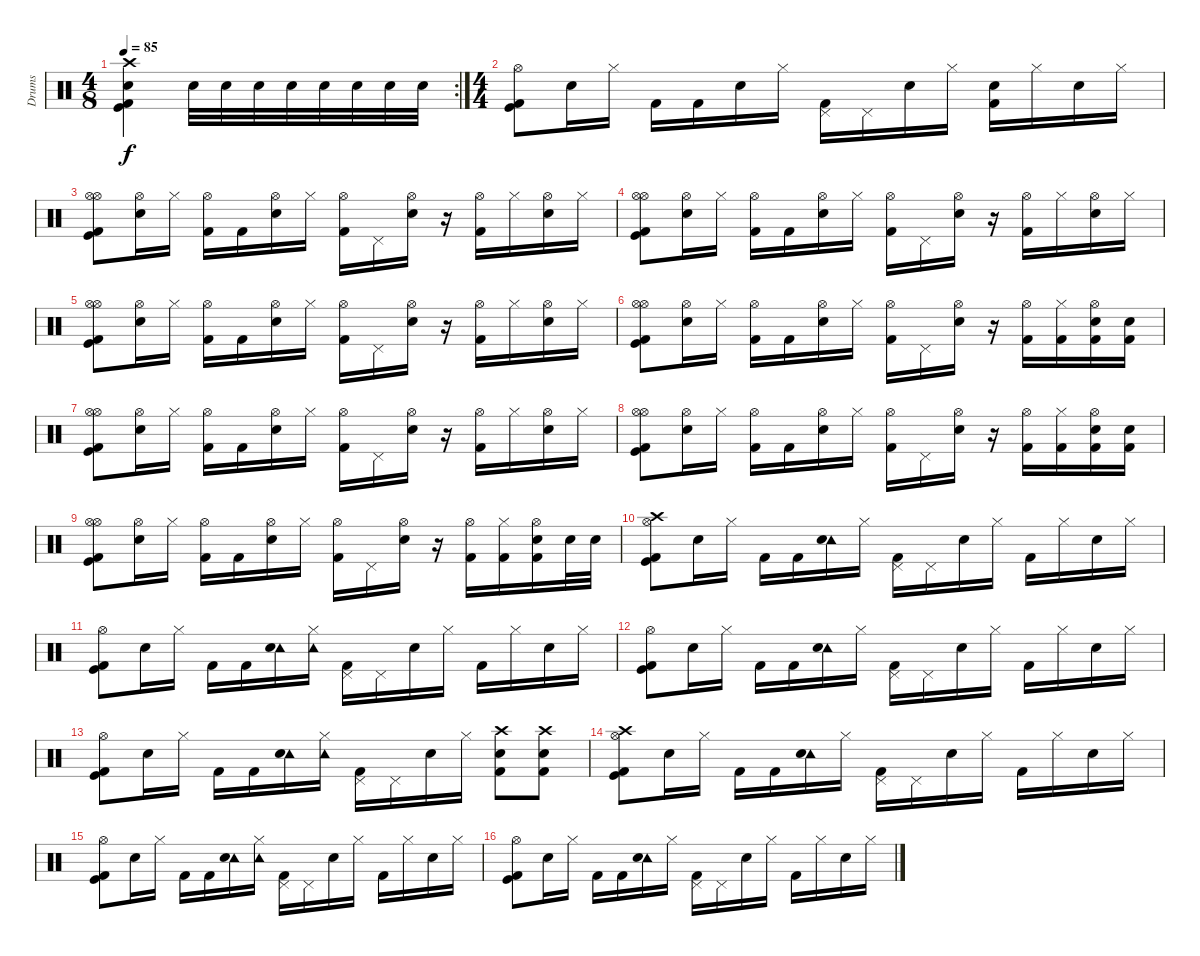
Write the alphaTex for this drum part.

\track ("Drums" "Drums") {instrument percussion}
\staff {score}
\articulation defaults
\rc 2
\ts (4 8)
\tempo 85
\clef neutral
\ks c
("Crash high (hit)" "Kick (hit) 2" "Snare (hit) 2" "Kick (hit)").4{dy f} "Snare (hit) 2".32 "Snare (hit) 2".32 "Snare (hit) 2".32 "Snare (hit) 2".32 "Snare (hit) 2".32 "Snare (hit) 2".32 "Snare (hit) 2".32 "Snare (hit) 2".32 |
\ts (4 4)
("Hi-Hat (open)" "Kick (hit) 2" "Kick (hit)").8 "Snare (hit) 2".16 "Hi-Hat (closed)".16 "Kick (hit) 2".16 "Kick (hit) 2".16 "Snare (hit) 2".16 "Hi-Hat (closed)".16 ("Pedal Hi-Hat (hit)" "Kick (hit) 2").16 "Pedal Hi-Hat (hit)".16 "Snare (hit) 2".16 "Hi-Hat (closed)".16 ("Snare (hit) 2" "Kick (hit) 2").16 "Hi-Hat (closed)".16 "Snare (hit) 2".16 "Hi-Hat (closed)".16 |
("Hi-Hat (open)" "Hi-Hat (open)" "Kick (hit) 2" "Kick (hit)").8 ("Hi-Hat (open)" "Snare (hit) 2").16 "Hi-Hat (closed)".16 ("Hi-Hat (open)" "Kick (hit) 2").16 "Kick (hit) 2".16 ("Hi-Hat (open)" "Snare (hit) 2").16 "Hi-Hat (closed)".16 ("Hi-Hat (open)" "Kick (hit) 2").16 "Pedal Hi-Hat (hit)".16 ("Hi-Hat (open)" "Snare (hit) 2").16 r.16 ("Hi-Hat (open)" "Kick (hit) 2").16 "Hi-Hat (closed)".16 ("Hi-Hat (open)" "Snare (hit) 2").16 "Hi-Hat (closed)".16 |
("Hi-Hat (open)" "Hi-Hat (open)" "Kick (hit) 2" "Kick (hit)").8 ("Hi-Hat (open)" "Snare (hit) 2").16 "Hi-Hat (closed)".16 ("Hi-Hat (open)" "Kick (hit) 2").16 "Kick (hit) 2".16 ("Hi-Hat (open)" "Snare (hit) 2").16 "Hi-Hat (closed)".16 ("Hi-Hat (open)" "Kick (hit) 2").16 "Pedal Hi-Hat (hit)".16 ("Hi-Hat (open)" "Snare (hit) 2").16 r.16 ("Hi-Hat (open)" "Kick (hit) 2").16 "Hi-Hat (closed)".16 ("Hi-Hat (open)" "Snare (hit) 2").16 "Hi-Hat (closed)".16 |
("Hi-Hat (open)" "Hi-Hat (open)" "Kick (hit) 2" "Kick (hit)").8 ("Hi-Hat (open)" "Snare (hit) 2").16 "Hi-Hat (closed)".16 ("Hi-Hat (open)" "Kick (hit) 2").16 "Kick (hit) 2".16 ("Hi-Hat (open)" "Snare (hit) 2").16 "Hi-Hat (closed)".16 ("Hi-Hat (open)" "Kick (hit) 2").16 "Pedal Hi-Hat (hit)".16 ("Hi-Hat (open)" "Snare (hit) 2").16 r.16 ("Hi-Hat (open)" "Kick (hit) 2").16 "Hi-Hat (closed)".16 ("Hi-Hat (open)" "Snare (hit) 2").16 "Hi-Hat (closed)".16 |
("Hi-Hat (open)" "Hi-Hat (open)" "Kick (hit) 2" "Kick (hit)").8 ("Hi-Hat (open)" "Snare (hit) 2").16 "Hi-Hat (closed)".16 ("Hi-Hat (open)" "Kick (hit) 2").16 "Kick (hit) 2".16 ("Hi-Hat (open)" "Snare (hit) 2").16 "Hi-Hat (closed)".16 ("Hi-Hat (open)" "Kick (hit) 2").16 "Pedal Hi-Hat (hit)".16 ("Hi-Hat (open)" "Snare (hit) 2").16 r.16 ("Hi-Hat (open)" "Kick (hit) 2").16 ("Hi-Hat (closed)" "Kick (hit) 2").16 ("Hi-Hat (open)" "Snare (hit) 2" "Kick (hit) 2").16 ("Snare (hit) 2" "Kick (hit) 2").16 |
("Hi-Hat (open)" "Hi-Hat (open)" "Kick (hit) 2" "Kick (hit)").8 ("Hi-Hat (open)" "Snare (hit) 2").16 "Hi-Hat (closed)".16 ("Hi-Hat (open)" "Kick (hit) 2").16 "Kick (hit) 2".16 ("Hi-Hat (open)" "Snare (hit) 2").16 "Hi-Hat (closed)".16 ("Hi-Hat (open)" "Kick (hit) 2").16 "Pedal Hi-Hat (hit)".16 ("Hi-Hat (open)" "Snare (hit) 2").16 r.16 ("Hi-Hat (open)" "Kick (hit) 2").16 "Hi-Hat (closed)".16 ("Hi-Hat (open)" "Snare (hit) 2").16 "Hi-Hat (closed)".16 |
("Hi-Hat (open)" "Hi-Hat (open)" "Kick (hit) 2" "Kick (hit)").8 ("Hi-Hat (open)" "Snare (hit) 2").16 "Hi-Hat (closed)".16 ("Hi-Hat (open)" "Kick (hit) 2").16 "Kick (hit) 2".16 ("Hi-Hat (open)" "Snare (hit) 2").16 "Hi-Hat (closed)".16 ("Hi-Hat (open)" "Kick (hit) 2").16 "Pedal Hi-Hat (hit)".16 ("Hi-Hat (open)" "Snare (hit) 2").16 r.16 ("Hi-Hat (open)" "Kick (hit) 2").16 ("Hi-Hat (closed)" "Kick (hit) 2").16 ("Hi-Hat (open)" "Snare (hit) 2" "Kick (hit) 2").16 ("Snare (hit) 2" "Kick (hit) 2").16 |
("Hi-Hat (open)" "Hi-Hat (open)" "Kick (hit) 2" "Kick (hit)").8 ("Hi-Hat (open)" "Snare (hit) 2").16 "Hi-Hat (closed)".16 ("Hi-Hat (open)" "Kick (hit) 2").16 "Kick (hit) 2".16 ("Hi-Hat (open)" "Snare (hit) 2").16 "Hi-Hat (closed)".16 ("Hi-Hat (open)" "Kick (hit) 2").16 "Pedal Hi-Hat (hit)".16 ("Hi-Hat (open)" "Snare (hit) 2").16 r.16 ("Hi-Hat (open)" "Kick (hit) 2").16 ("Hi-Hat (closed)" "Kick (hit) 2").16 ("Hi-Hat (open)" "Snare (hit) 2" "Kick (hit) 2").16 "Snare (hit) 2".32 "Snare (hit) 2".32 |
("Crash high (hit)" "Hi-Hat (open)" "Kick (hit) 2" "Kick (hit)").8 "Snare (hit) 2".16 "Hi-Hat (closed)".16 "Kick (hit) 2".16 "Kick (hit) 2".16 ("Tambourine (hit)" "Snare (hit) 2").16 "Hi-Hat (closed)".16 ("Pedal Hi-Hat (hit)" "Kick (hit) 2").16 "Pedal Hi-Hat (hit)".16 "Snare (hit) 2".16 "Hi-Hat (closed)".16 "Kick (hit) 2".16 "Hi-Hat (closed)".16 "Snare (hit) 2".16 "Hi-Hat (closed)".16 |
("Hi-Hat (open)" "Kick (hit) 2" "Kick (hit)").8 "Snare (hit) 2".16 "Hi-Hat (closed)".16 "Kick (hit) 2".16 "Kick (hit) 2".16 ("Tambourine (hit)" "Snare (hit) 2").16 ("Tambourine (hit)" "Hi-Hat (closed)").16 ("Pedal Hi-Hat (hit)" "Kick (hit) 2").16 "Pedal Hi-Hat (hit)".16 "Snare (hit) 2".16 "Hi-Hat (closed)".16 "Kick (hit) 2".16 "Hi-Hat (closed)".16 "Snare (hit) 2".16 "Hi-Hat (closed)".16 |
("Hi-Hat (open)" "Kick (hit) 2" "Kick (hit)").8 "Snare (hit) 2".16 "Hi-Hat (closed)".16 "Kick (hit) 2".16 "Kick (hit) 2".16 ("Tambourine (hit)" "Snare (hit) 2").16 "Hi-Hat (closed)".16 ("Pedal Hi-Hat (hit)" "Kick (hit) 2").16 "Pedal Hi-Hat (hit)".16 "Snare (hit) 2".16 "Hi-Hat (closed)".16 "Kick (hit) 2".16 "Hi-Hat (closed)".16 "Snare (hit) 2".16 "Hi-Hat (closed)".16 |
("Hi-Hat (open)" "Kick (hit) 2" "Kick (hit)").8 "Snare (hit) 2".16 "Hi-Hat (closed)".16 "Kick (hit) 2".16 "Kick (hit) 2".16 ("Tambourine (hit)" "Snare (hit) 2").16 ("Tambourine (hit)" "Hi-Hat (closed)").16 ("Pedal Hi-Hat (hit)" "Kick (hit) 2").16 "Pedal Hi-Hat (hit)".16 "Snare (hit) 2".16 "Hi-Hat (closed)".16 ("Crash high (hit)" "Snare (hit) 2" "Kick (hit) 2").8 ("Crash high (hit)" "Snare (hit) 2" "Kick (hit) 2").8 |
("Crash high (hit)" "Hi-Hat (open)" "Kick (hit) 2" "Kick (hit)").8 "Snare (hit) 2".16 "Hi-Hat (closed)".16 "Kick (hit) 2".16 "Kick (hit) 2".16 ("Tambourine (hit)" "Snare (hit) 2").16 "Hi-Hat (closed)".16 ("Pedal Hi-Hat (hit)" "Kick (hit) 2").16 "Pedal Hi-Hat (hit)".16 "Snare (hit) 2".16 "Hi-Hat (closed)".16 "Kick (hit) 2".16 "Hi-Hat (closed)".16 "Snare (hit) 2".16 "Hi-Hat (closed)".16 |
("Hi-Hat (open)" "Kick (hit) 2" "Kick (hit)").8 "Snare (hit) 2".16 "Hi-Hat (closed)".16 "Kick (hit) 2".16 "Kick (hit) 2".16 ("Tambourine (hit)" "Snare (hit) 2").16 ("Tambourine (hit)" "Hi-Hat (closed)").16 ("Pedal Hi-Hat (hit)" "Kick (hit) 2").16 "Pedal Hi-Hat (hit)".16 "Snare (hit) 2".16 "Hi-Hat (closed)".16 "Kick (hit) 2".16 "Hi-Hat (closed)".16 "Snare (hit) 2".16 "Hi-Hat (closed)".16 |
("Hi-Hat (open)" "Kick (hit) 2" "Kick (hit)").8 "Snare (hit) 2".16 "Hi-Hat (closed)".16 "Kick (hit) 2".16 "Kick (hit) 2".16 ("Tambourine (hit)" "Snare (hit) 2").16 "Hi-Hat (closed)".16 ("Pedal Hi-Hat (hit)" "Kick (hit) 2").16 "Pedal Hi-Hat (hit)".16 "Snare (hit) 2".16 "Hi-Hat (closed)".16 "Kick (hit) 2".16 "Hi-Hat (closed)".16 "Snare (hit) 2".16 "Hi-Hat (closed)".16
